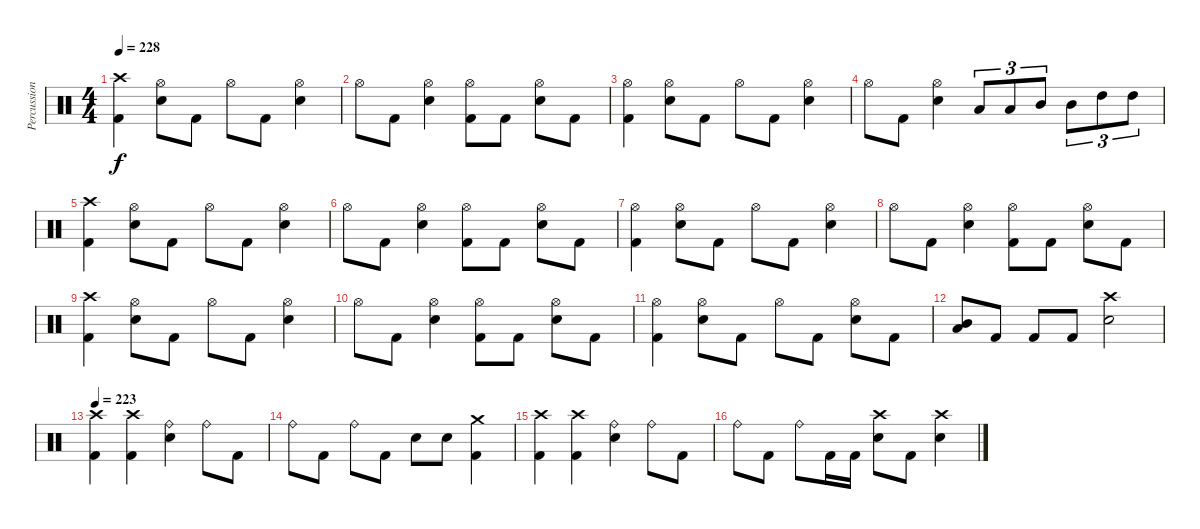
\track ("Percussion" "Percussion") {instrument percussion}
\staff {score}
\articulation defaults
\ts (4 4)
\tempo 228
\clef neutral
\ks c
("Crash high (hit)" "Kick (hit) 2").4{dy f} ("Hi-Hat (open)" "Snare (hit) 2").8 "Kick (hit) 2".8 "Hi-Hat (open)".8 "Kick (hit) 2".8 ("Hi-Hat (open)" "Snare (hit) 2").4 |
"Hi-Hat (open)".8 "Kick (hit) 2".8 ("Hi-Hat (open)" "Snare (hit) 2").4 ("Hi-Hat (open)" "Kick (hit) 2").8 "Kick (hit) 2".8 ("Hi-Hat (open)" "Snare (hit) 2").8 "Kick (hit) 2".8 |
("Hi-Hat (open)" "Kick (hit) 2").4 ("Hi-Hat (open)" "Snare (hit) 2").8 "Kick (hit) 2".8 "Hi-Hat (open)".8 "Kick (hit) 2".8 ("Hi-Hat (open)" "Snare (hit) 2").4 |
"Hi-Hat (open)".8 "Kick (hit) 2".8 ("Hi-Hat (open)" "Snare (hit) 2").4 "Low Tom (hit)".8{tu (3 2)} "Low Tom (hit)".8{tu (3 2)} "Mid Tom (hit)".8{tu (3 2)} "Mid Tom (hit)".8{tu (3 2)} "High Tom (hit)".8{tu (3 2)} "High Tom (hit)".8{tu (3 2)} |
("Crash high (hit)" "Kick (hit) 2").4 ("Hi-Hat (open)" "Snare (hit) 2").8 "Kick (hit) 2".8 "Hi-Hat (open)".8 "Kick (hit) 2".8 ("Hi-Hat (open)" "Snare (hit) 2").4 |
"Hi-Hat (open)".8 "Kick (hit) 2".8 ("Hi-Hat (open)" "Snare (hit) 2").4 ("Hi-Hat (open)" "Kick (hit) 2").8 "Kick (hit) 2".8 ("Hi-Hat (open)" "Snare (hit) 2").8 "Kick (hit) 2".8 |
("Hi-Hat (open)" "Kick (hit) 2").4 ("Hi-Hat (open)" "Snare (hit) 2").8 "Kick (hit) 2".8 "Hi-Hat (open)".8 "Kick (hit) 2".8 ("Hi-Hat (open)" "Snare (hit) 2").4 |
"Hi-Hat (open)".8 "Kick (hit) 2".8 ("Hi-Hat (open)" "Snare (hit) 2").4 ("Hi-Hat (open)" "Kick (hit) 2").8 "Kick (hit) 2".8 ("Hi-Hat (open)" "Snare (hit) 2").8 "Kick (hit) 2".8 |
("Crash high (hit)" "Kick (hit) 2").4 ("Hi-Hat (open)" "Snare (hit) 2").8 "Kick (hit) 2".8 "Hi-Hat (open)".8 "Kick (hit) 2".8 ("Hi-Hat (open)" "Snare (hit) 2").4 |
"Hi-Hat (open)".8 "Kick (hit) 2".8 ("Hi-Hat (open)" "Snare (hit) 2").4 ("Hi-Hat (open)" "Kick (hit) 2").8 "Kick (hit) 2".8 ("Hi-Hat (open)" "Snare (hit) 2").8 "Kick (hit) 2".8 |
("Hi-Hat (open)" "Kick (hit) 2").4 ("Hi-Hat (open)" "Snare (hit) 2").8 "Kick (hit) 2".8 "Hi-Hat (open)".8 "Kick (hit) 2".8 ("Hi-Hat (open)" "Snare (hit) 2").8 "Kick (hit) 2".8 |
("Mid Tom (hit)" "Low Tom (hit)").8 "Kick (hit) 2".8 "Kick (hit) 2".8 "Kick (hit) 2".8 ("Crash high (hit)" "Snare (hit) 2").2 |
\tempo 223
("Crash high (hit)" "Kick (hit) 2").4 ("Crash high (hit)" "Kick (hit) 2").4 ("Ride (bell)" "Snare (hit) 2").4 "Ride (bell)".8 "Kick (hit) 2".8 |
"Ride (bell)".8 "Kick (hit) 2".8 "Ride (bell)".8 "Kick (hit) 2".8 "Snare (hit) 2".8 "Snare (hit) 2".8 ("Crash medium (hit)" "Kick (hit) 2").4 |
("Crash high (hit)" "Kick (hit) 2").4 ("Crash high (hit)" "Kick (hit) 2").4 ("Ride (bell)" "Snare (hit) 2").4 "Ride (bell)".8 "Kick (hit) 2".8 |
"Ride (bell)".8 "Kick (hit) 2".8 "Ride (bell)".8 "Kick (hit) 2".16 "Kick (hit) 2".16 ("Crash high (hit)" "Snare (hit) 2").8 "Kick (hit) 2".8 ("Crash high (hit)" "Snare (hit) 2").4
